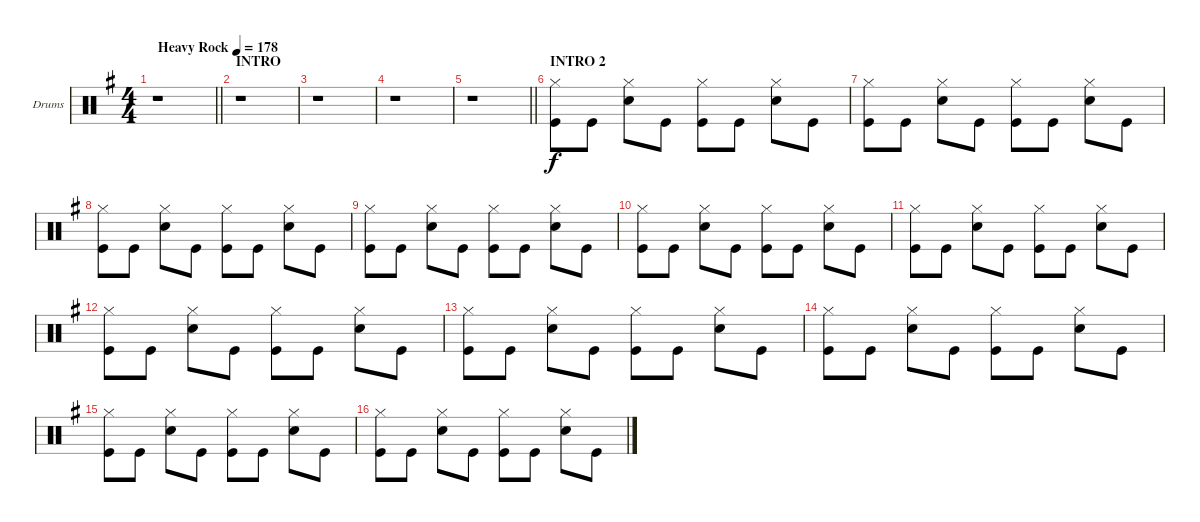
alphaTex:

\bracketExtendMode groupsimilarinstruments
\firstSystemTrackNameOrientation horizontal
\otherSystemsTrackNameOrientation horizontal
\track ("Drumkit" "Drums") {instrument percussion}
\staff {score}
\articulation defaults
\ts (4 4)
\beaming (8 2 2 2 2)
\tempo (178 "Heavy Rock")
\clef neutral
\barLineRight lightlight
\ks eminor
r.1{dy f} |
\section ("" "INTRO")
r.1 |
r.1 |
r.1 |
\barLineRight lightlight
r.1 |
\section ("" "INTRO 2")
("Hi-Hat (closed)" "Kick (hit)").8 "Kick (hit)".8 ("Hi-Hat (closed)" "Snare (hit) 2").8 "Kick (hit)".8 ("Hi-Hat (closed)" "Kick (hit)").8 "Kick (hit)".8 ("Hi-Hat (closed)" "Snare (hit) 2").8 "Kick (hit)".8 |
("Hi-Hat (closed)" "Kick (hit)").8 "Kick (hit)".8 ("Hi-Hat (closed)" "Snare (hit) 2").8 "Kick (hit)".8 ("Hi-Hat (closed)" "Kick (hit)").8 "Kick (hit)".8 ("Hi-Hat (closed)" "Snare (hit) 2").8 "Kick (hit)".8 |
("Hi-Hat (closed)" "Kick (hit)").8 "Kick (hit)".8 ("Hi-Hat (closed)" "Snare (hit) 2").8 "Kick (hit)".8 ("Hi-Hat (closed)" "Kick (hit)").8 "Kick (hit)".8 ("Hi-Hat (closed)" "Snare (hit) 2").8 "Kick (hit)".8 |
("Hi-Hat (closed)" "Kick (hit)").8 "Kick (hit)".8 ("Hi-Hat (closed)" "Snare (hit) 2").8 "Kick (hit)".8 ("Hi-Hat (closed)" "Kick (hit)").8 "Kick (hit)".8 ("Hi-Hat (closed)" "Snare (hit) 2").8 "Kick (hit)".8 |
("Hi-Hat (closed)" "Kick (hit)").8 "Kick (hit)".8 ("Hi-Hat (closed)" "Snare (hit) 2").8 "Kick (hit)".8 ("Hi-Hat (closed)" "Kick (hit)").8 "Kick (hit)".8 ("Hi-Hat (closed)" "Snare (hit) 2").8 "Kick (hit)".8 |
("Hi-Hat (closed)" "Kick (hit)").8 "Kick (hit)".8 ("Hi-Hat (closed)" "Snare (hit) 2").8 "Kick (hit)".8 ("Hi-Hat (closed)" "Kick (hit)").8 "Kick (hit)".8 ("Hi-Hat (closed)" "Snare (hit) 2").8 "Kick (hit)".8 |
("Hi-Hat (closed)" "Kick (hit)").8 "Kick (hit)".8 ("Hi-Hat (closed)" "Snare (hit) 2").8 "Kick (hit)".8 ("Hi-Hat (closed)" "Kick (hit)").8 "Kick (hit)".8 ("Hi-Hat (closed)" "Snare (hit) 2").8 "Kick (hit)".8 |
("Hi-Hat (closed)" "Kick (hit)").8 "Kick (hit)".8 ("Hi-Hat (closed)" "Snare (hit) 2").8 "Kick (hit)".8 ("Hi-Hat (closed)" "Kick (hit)").8 "Kick (hit)".8 ("Hi-Hat (closed)" "Snare (hit) 2").8 "Kick (hit)".8 |
("Hi-Hat (closed)" "Kick (hit)").8 "Kick (hit)".8 ("Hi-Hat (closed)" "Snare (hit) 2").8 "Kick (hit)".8 ("Hi-Hat (closed)" "Kick (hit)").8 "Kick (hit)".8 ("Hi-Hat (closed)" "Snare (hit) 2").8 "Kick (hit)".8 |
("Hi-Hat (closed)" "Kick (hit)").8 "Kick (hit)".8 ("Hi-Hat (closed)" "Snare (hit) 2").8 "Kick (hit)".8 ("Hi-Hat (closed)" "Kick (hit)").8 "Kick (hit)".8 ("Hi-Hat (closed)" "Snare (hit) 2").8 "Kick (hit)".8 |
("Hi-Hat (closed)" "Kick (hit)").8 "Kick (hit)".8 ("Hi-Hat (closed)" "Snare (hit) 2").8 "Kick (hit)".8 ("Hi-Hat (closed)" "Kick (hit)").8 "Kick (hit)".8 ("Hi-Hat (closed)" "Snare (hit) 2").8 "Kick (hit)".8
